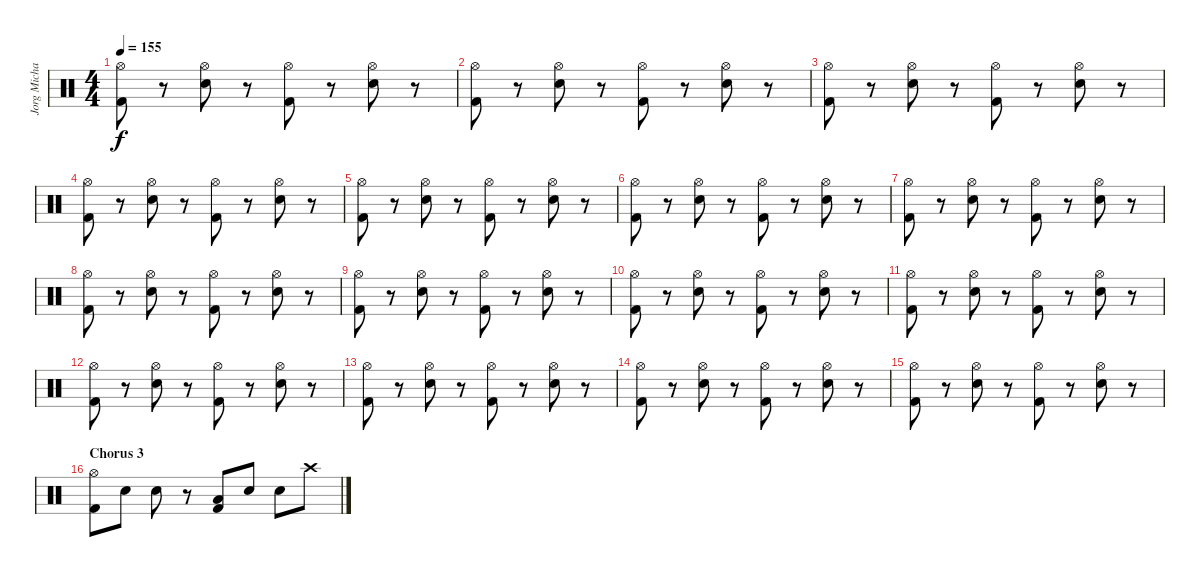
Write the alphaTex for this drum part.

\track ("Jorg Michael - Batteria" "Jorg Micha") {instrument percussion}
\staff {score}
\articulation defaults
\ts (4 4)
\tempo 155
\clef neutral
\ks c
("Kick (hit) 2" "Hi-Hat (open)").8{dy f} r.8 ("Snare (hit) 2" "Hi-Hat (open)").8 r.8 ("Kick (hit) 2" "Hi-Hat (open)").8 r.8 ("Snare (hit) 2" "Hi-Hat (open)").8 r.8 |
("Kick (hit) 2" "Hi-Hat (open)").8 r.8 ("Snare (hit) 2" "Hi-Hat (open)").8 r.8 ("Kick (hit) 2" "Hi-Hat (open)").8 r.8 ("Snare (hit) 2" "Hi-Hat (open)").8 r.8 |
("Kick (hit) 2" "Hi-Hat (open)").8 r.8 ("Snare (hit) 2" "Hi-Hat (open)").8 r.8 ("Kick (hit) 2" "Hi-Hat (open)").8 r.8 ("Snare (hit) 2" "Hi-Hat (open)").8 r.8 |
("Kick (hit) 2" "Hi-Hat (open)").8 r.8 ("Snare (hit) 2" "Hi-Hat (open)").8 r.8 ("Kick (hit) 2" "Hi-Hat (open)").8 r.8 ("Snare (hit) 2" "Hi-Hat (open)").8 r.8 |
("Kick (hit) 2" "Hi-Hat (open)").8 r.8 ("Snare (hit) 2" "Hi-Hat (open)").8 r.8 ("Kick (hit) 2" "Hi-Hat (open)").8 r.8 ("Snare (hit) 2" "Hi-Hat (open)").8 r.8 |
("Kick (hit) 2" "Hi-Hat (open)").8 r.8 ("Snare (hit) 2" "Hi-Hat (open)").8 r.8 ("Kick (hit) 2" "Hi-Hat (open)").8 r.8 ("Snare (hit) 2" "Hi-Hat (open)").8 r.8 |
("Kick (hit) 2" "Hi-Hat (open)").8 r.8 ("Snare (hit) 2" "Hi-Hat (open)").8 r.8 ("Kick (hit) 2" "Hi-Hat (open)").8 r.8 ("Snare (hit) 2" "Hi-Hat (open)").8 r.8 |
("Kick (hit) 2" "Hi-Hat (open)").8 r.8 ("Snare (hit) 2" "Hi-Hat (open)").8 r.8 ("Kick (hit) 2" "Hi-Hat (open)").8 r.8 ("Snare (hit) 2" "Hi-Hat (open)").8 r.8 |
("Kick (hit) 2" "Hi-Hat (open)").8 r.8 ("Snare (hit) 2" "Hi-Hat (open)").8 r.8 ("Kick (hit) 2" "Hi-Hat (open)").8 r.8 ("Snare (hit) 2" "Hi-Hat (open)").8 r.8 |
("Kick (hit) 2" "Hi-Hat (open)").8 r.8 ("Snare (hit) 2" "Hi-Hat (open)").8 r.8 ("Kick (hit) 2" "Hi-Hat (open)").8 r.8 ("Snare (hit) 2" "Hi-Hat (open)").8 r.8 |
("Kick (hit) 2" "Hi-Hat (open)").8 r.8 ("Snare (hit) 2" "Hi-Hat (open)").8 r.8 ("Kick (hit) 2" "Hi-Hat (open)").8 r.8 ("Snare (hit) 2" "Hi-Hat (open)").8 r.8 |
("Kick (hit) 2" "Hi-Hat (open)").8 r.8 ("Snare (hit) 2" "Hi-Hat (open)").8 r.8 ("Kick (hit) 2" "Hi-Hat (open)").8 r.8 ("Snare (hit) 2" "Hi-Hat (open)").8 r.8 |
("Kick (hit) 2" "Hi-Hat (open)").8 r.8 ("Snare (hit) 2" "Hi-Hat (open)").8 r.8 ("Kick (hit) 2" "Hi-Hat (open)").8 r.8 ("Snare (hit) 2" "Hi-Hat (open)").8 r.8 |
("Kick (hit) 2" "Hi-Hat (open)").8 r.8 ("Snare (hit) 2" "Hi-Hat (open)").8 r.8 ("Kick (hit) 2" "Hi-Hat (open)").8 r.8 ("Snare (hit) 2" "Hi-Hat (open)").8 r.8 |
("Kick (hit) 2" "Hi-Hat (open)").8 r.8 ("Snare (hit) 2" "Hi-Hat (open)").8 r.8 ("Kick (hit) 2" "Hi-Hat (open)").8 r.8 ("Snare (hit) 2" "Hi-Hat (open)").8 r.8 |
\section ("" "Chorus 3")
("Kick (hit) 2" "Hi-Hat (open)").8 "Snare (hit) 2".8 "Snare (hit) 2".8 r.8 ("Kick (hit) 2" "Low Tom (hit)").8 "Snare (hit) 2".8 "Snare (hit) 2".8 "Crash high (hit)".8
